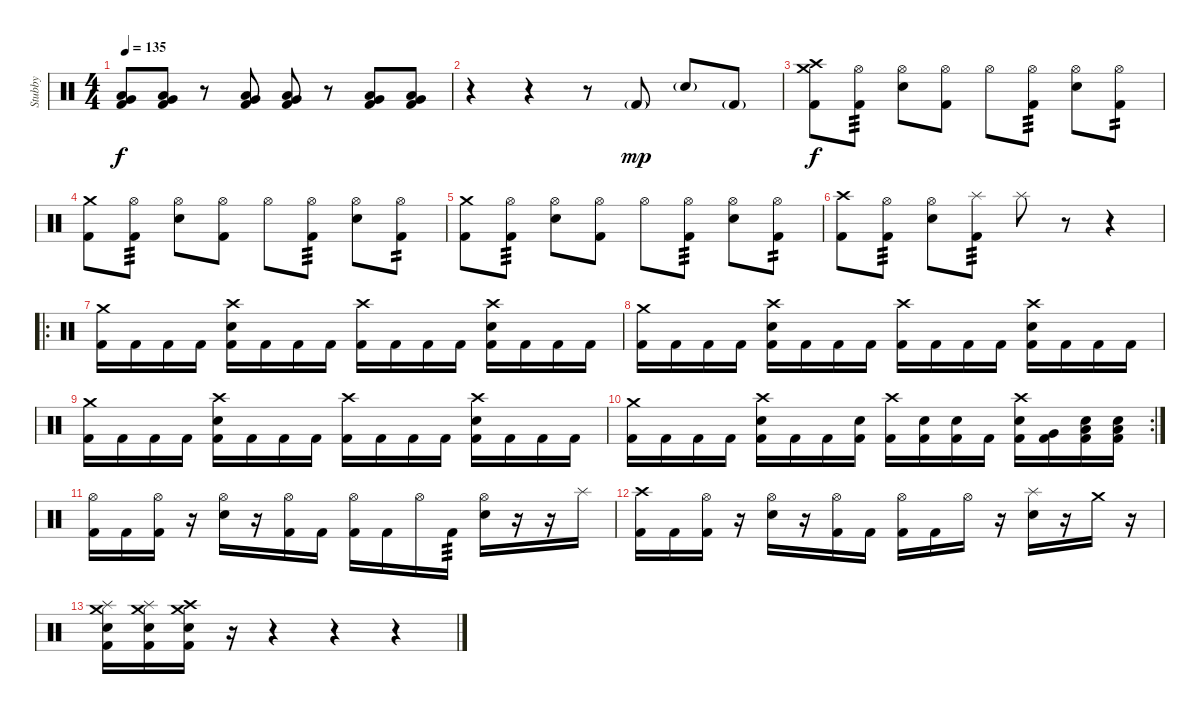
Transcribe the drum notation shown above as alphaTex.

\track ("Stubby" "Stubby") {instrument percussion}
\staff {score}
\articulation defaults
\ts (4 4)
\tempo 135
\clef neutral
\ks c
("Very Low Tom (hit)" "Low Floor Tom (hit)" "Kick (hit) 2").8{dy f} ("Very Low Tom (hit)" "Low Floor Tom (hit)" "Kick (hit) 2").8 r.8 ("Very Low Tom (hit)" "Low Floor Tom (hit)" "Kick (hit) 2").8 ("Very Low Tom (hit)" "Low Floor Tom (hit)" "Kick (hit) 2").8 r.8 ("Very Low Tom (hit)" "Low Floor Tom (hit)" "Kick (hit) 2").8 ("Very Low Tom (hit)" "Low Floor Tom (hit)" "Kick (hit) 2").8 |
r.4 r.4 r.8 "Kick (hit) 2"{g}.8{dy mp} "Electric Snare (hit)"{g}.8 "Kick (hit) 2"{g}.8 |
("Crash high (hit)" "Crash medium (hit)" "Kick (hit) 2").8{dy f} ("Hi-Hat (open)" "Kick (hit) 2").8{tp 3} ("Hi-Hat (open)" "Electric Snare (hit)").8 ("Hi-Hat (open)" "Kick (hit) 2").8 "Hi-Hat (open)".8 ("Hi-Hat (open)" "Kick (hit) 2").8{tp 3} ("Hi-Hat (open)" "Electric Snare (hit)").8 ("Hi-Hat (open)" "Kick (hit) 2").8{tp 2} |
("Crash medium (hit)" "Kick (hit) 2").8 ("Hi-Hat (open)" "Kick (hit) 2").8{tp 3} ("Hi-Hat (open)" "Electric Snare (hit)").8 ("Hi-Hat (open)" "Kick (hit) 2").8 "Hi-Hat (open)".8 ("Hi-Hat (open)" "Kick (hit) 2").8{tp 3} ("Hi-Hat (open)" "Electric Snare (hit)").8 ("Hi-Hat (open)" "Kick (hit) 2").8{tp 2} |
("Crash medium (hit)" "Kick (hit) 2").8 ("Hi-Hat (open)" "Kick (hit) 2").8{tp 3} ("Hi-Hat (open)" "Electric Snare (hit)").8 ("Hi-Hat (open)" "Kick (hit) 2").8 "Hi-Hat (open)".8 ("Hi-Hat (open)" "Kick (hit) 2").8{tp 3} ("Hi-Hat (open)" "Electric Snare (hit)").8 ("Hi-Hat (open)" "Kick (hit) 2").8{tp 2} |
("Crash high (hit)" "Kick (hit) 2").8 ("Hi-Hat (open)" "Kick (hit) 2").8{tp 3} ("Hi-Hat (open)" "Electric Snare (hit)").8 ("Splash (hit)" "Kick (hit) 2").8{tp 3} "Splash (hit)".8 r.8 r.4 |
\ro
("Crash medium (hit)" "Kick (hit) 2").16 "Kick (hit) 2".16 "Kick (hit) 2".16 "Kick (hit) 2".16 ("Crash high (hit)" "Electric Snare (hit)" "Kick (hit) 2").16 "Kick (hit) 2".16 "Kick (hit) 2".16 "Kick (hit) 2".16 ("Crash high (hit)" "Kick (hit) 2").16 "Kick (hit) 2".16 "Kick (hit) 2".16 "Kick (hit) 2".16 ("Crash high (hit)" "Electric Snare (hit)" "Kick (hit) 2").16 "Kick (hit) 2".16 "Kick (hit) 2".16 "Kick (hit) 2".16 |
("Crash medium (hit)" "Kick (hit) 2").16 "Kick (hit) 2".16 "Kick (hit) 2".16 "Kick (hit) 2".16 ("Crash high (hit)" "Electric Snare (hit)" "Kick (hit) 2").16 "Kick (hit) 2".16 "Kick (hit) 2".16 "Kick (hit) 2".16 ("Crash high (hit)" "Kick (hit) 2").16 "Kick (hit) 2".16 "Kick (hit) 2".16 "Kick (hit) 2".16 ("Crash high (hit)" "Electric Snare (hit)" "Kick (hit) 2").16 "Kick (hit) 2".16 "Kick (hit) 2".16 "Kick (hit) 2".16 |
("Crash medium (hit)" "Kick (hit) 2").16 "Kick (hit) 2".16 "Kick (hit) 2".16 "Kick (hit) 2".16 ("Crash high (hit)" "Electric Snare (hit)" "Kick (hit) 2").16 "Kick (hit) 2".16 "Kick (hit) 2".16 "Kick (hit) 2".16 ("Crash high (hit)" "Kick (hit) 2").16 "Kick (hit) 2".16 "Kick (hit) 2".16 "Kick (hit) 2".16 ("Crash high (hit)" "Electric Snare (hit)" "Kick (hit) 2").16 "Kick (hit) 2".16 "Kick (hit) 2".16 "Kick (hit) 2".16 |
\rc 2
("Crash medium (hit)" "Kick (hit) 2").16 "Kick (hit) 2".16 "Kick (hit) 2".16 "Kick (hit) 2".16 ("Crash high (hit)" "Electric Snare (hit)" "Kick (hit) 2").16 "Kick (hit) 2".16 "Kick (hit) 2".16 ("Electric Snare (hit)" "Kick (hit) 2").16 ("Crash high (hit)" "Kick (hit) 2").16 ("Electric Snare (hit)" "Kick (hit) 2").16 ("Electric Snare (hit)" "Kick (hit) 2").16 "Kick (hit) 2".16 ("Crash high (hit)" "Electric Snare (hit)" "Kick (hit) 2").16 ("Very Low Tom (hit)" "Kick (hit) 2").16 ("Low Floor Tom (hit)" "Electric Snare (hit)" "Kick (hit) 2").16 ("Low Floor Tom (hit)" "Electric Snare (hit)" "Kick (hit) 2").16 |
("Hi-Hat (open)" "Kick (hit) 2").16 "Kick (hit) 2".16 ("Hi-Hat (open)" "Kick (hit) 2").16 r.16 ("Hi-Hat (open)" "Electric Snare (hit)").16 r.16 ("Hi-Hat (open)" "Kick (hit) 2").16 "Kick (hit) 2".16 ("Hi-Hat (open)" "Kick (hit) 2").16 "Kick (hit) 2".16 "Hi-Hat (open)".16 "Kick (hit) 2".16{tp 3} ("Hi-Hat (open)" "Electric Snare (hit)").16 r.16 r.16 "Splash (hit)".16 |
("Crash high (hit)" "Kick (hit) 2").16 "Kick (hit) 2".16 ("Hi-Hat (open)" "Kick (hit) 2").16 r.16 ("Hi-Hat (open)" "Electric Snare (hit)").16 r.16 ("Hi-Hat (open)" "Kick (hit) 2").16 "Kick (hit) 2".16 ("Hi-Hat (open)" "Kick (hit) 2").16 "Kick (hit) 2".16 "Hi-Hat (open)".16 r.16 ("Splash (hit)" "Electric Snare (hit)").16 r.16 "Crash medium (hit)".16 r.16 |
("Splash (hit)" "Crash medium (hit)" "Electric Snare (hit)" "Kick (hit) 2").16 ("Splash (hit)" "Crash medium (hit)" "Electric Snare (hit)" "Kick (hit) 2").16 ("Crash high (hit)" "Crash medium (hit)" "Electric Snare (hit)" "Kick (hit) 2").16 r.16 r.4 r.4 r.4
